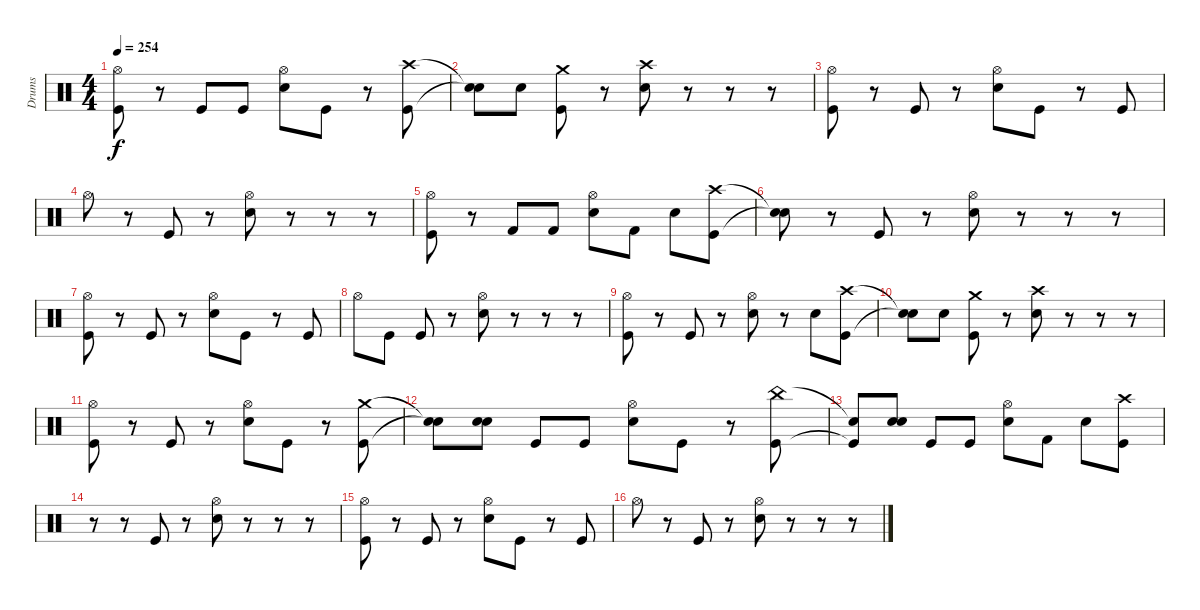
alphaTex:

\track ("Drums" "Drums") {instrument percussion}
\staff {score}
\articulation defaults
\ts (4 4)
\tempo 254
\clef neutral
\ks c
("Hi-Hat (open)" "Kick (hit)").8{dy f} r.8 "Kick (hit)".8 "Kick (hit)".8 ("Hi-Hat (open)" "Electric Snare (hit)").8 "Kick (hit)".8 r.8 ("Crash high (hit)" "Kick (hit)").8 |
("Snare (hit)"{t} "Snare (hit)"{t}).8 "Electric Snare (hit)".8 ("Crash medium (hit)" "Kick (hit)").8 r.8 ("Crash high (hit)" "Electric Snare (hit)").8 r.8 r.8 r.8 |
("Hi-Hat (open)" "Kick (hit)").8 r.8 "Kick (hit)".8 r.8 ("Hi-Hat (open)" "Electric Snare (hit)").8 "Kick (hit)".8 r.8 "Kick (hit)".8 |
"Hi-Hat (open)".8 r.8 "Kick (hit)".8 r.8 ("Hi-Hat (open)" "Electric Snare (hit)").8 r.8 r.8 r.8 |
("Hi-Hat (open)" "Kick (hit)").8 r.8 "Kick (hit) 2".8 "Kick (hit) 2".8 ("Hi-Hat (open)" "Electric Snare (hit)").8 "Kick (hit) 2".8 "Electric Snare (hit)".8 ("Crash high (hit)" "Kick (hit)").8 |
("Snare (hit)"{t} "Snare (hit)"{t}).8 r.8 "Kick (hit)".8 r.8 ("Hi-Hat (open)" "Electric Snare (hit)").8 r.8 r.8 r.8 |
("Hi-Hat (open)" "Kick (hit)").8 r.8 "Kick (hit)".8 r.8 ("Hi-Hat (open)" "Electric Snare (hit)").8 "Kick (hit)".8 r.8 "Kick (hit)".8 |
"Hi-Hat (open)".8 "Kick (hit)".8 "Kick (hit)".8 r.8 ("Hi-Hat (open)" "Electric Snare (hit)").8 r.8 r.8 r.8 |
("Hi-Hat (open)" "Kick (hit)").8 r.8 "Kick (hit)".8 r.8 ("Hi-Hat (open)" "Electric Snare (hit)").8 r.8 "Electric Snare (hit)".8 ("Crash high (hit)" "Kick (hit)").8 |
("Snare (hit)"{t} "Snare (hit)"{t}).8 "Electric Snare (hit)".8 ("Crash medium (hit)" "Kick (hit)").8 r.8 ("Crash high (hit)" "Electric Snare (hit)").8 r.8 r.8 r.8 |
("Hi-Hat (open)" "Kick (hit)").8 r.8 "Kick (hit)".8 r.8 ("Hi-Hat (open)" "Electric Snare (hit)").8 "Kick (hit)".8 r.8 ("Crash medium (hit)" "Kick (hit)").8 |
("Snare (hit)"{t} "Snare (hit)"{t}).8 ("Electric Snare (hit)" "Electric Snare (hit)").8{bd 480} "Kick (hit)".8 "Kick (hit)".8 ("Hi-Hat (open)" "Electric Snare (hit)").8 "Kick (hit)".8 r.8 ("China (hit)" "Kick (hit)").8 |
("Snare (hit)"{t} "Kick (hit)"{t}).8 ("Electric Snare (hit)" "Electric Snare (hit)").8{bd 480} "Kick (hit)".8 "Kick (hit)".8 ("Hi-Hat (open)" "Electric Snare (hit)").8 "Kick (hit) 2".8 "Electric Snare (hit)".8 ("Crash high (hit)" "Kick (hit)").8 |
r.8 r.8 "Kick (hit)".8 r.8 ("Hi-Hat (open)" "Electric Snare (hit)").8 r.8 r.8 r.8 |
("Hi-Hat (open)" "Kick (hit)").8 r.8 "Kick (hit)".8 r.8 ("Hi-Hat (open)" "Electric Snare (hit)").8 "Kick (hit)".8 r.8 "Kick (hit)".8 |
"Hi-Hat (open)".8 r.8 "Kick (hit)".8 r.8 ("Hi-Hat (open)" "Electric Snare (hit)").8 r.8 r.8 r.8
